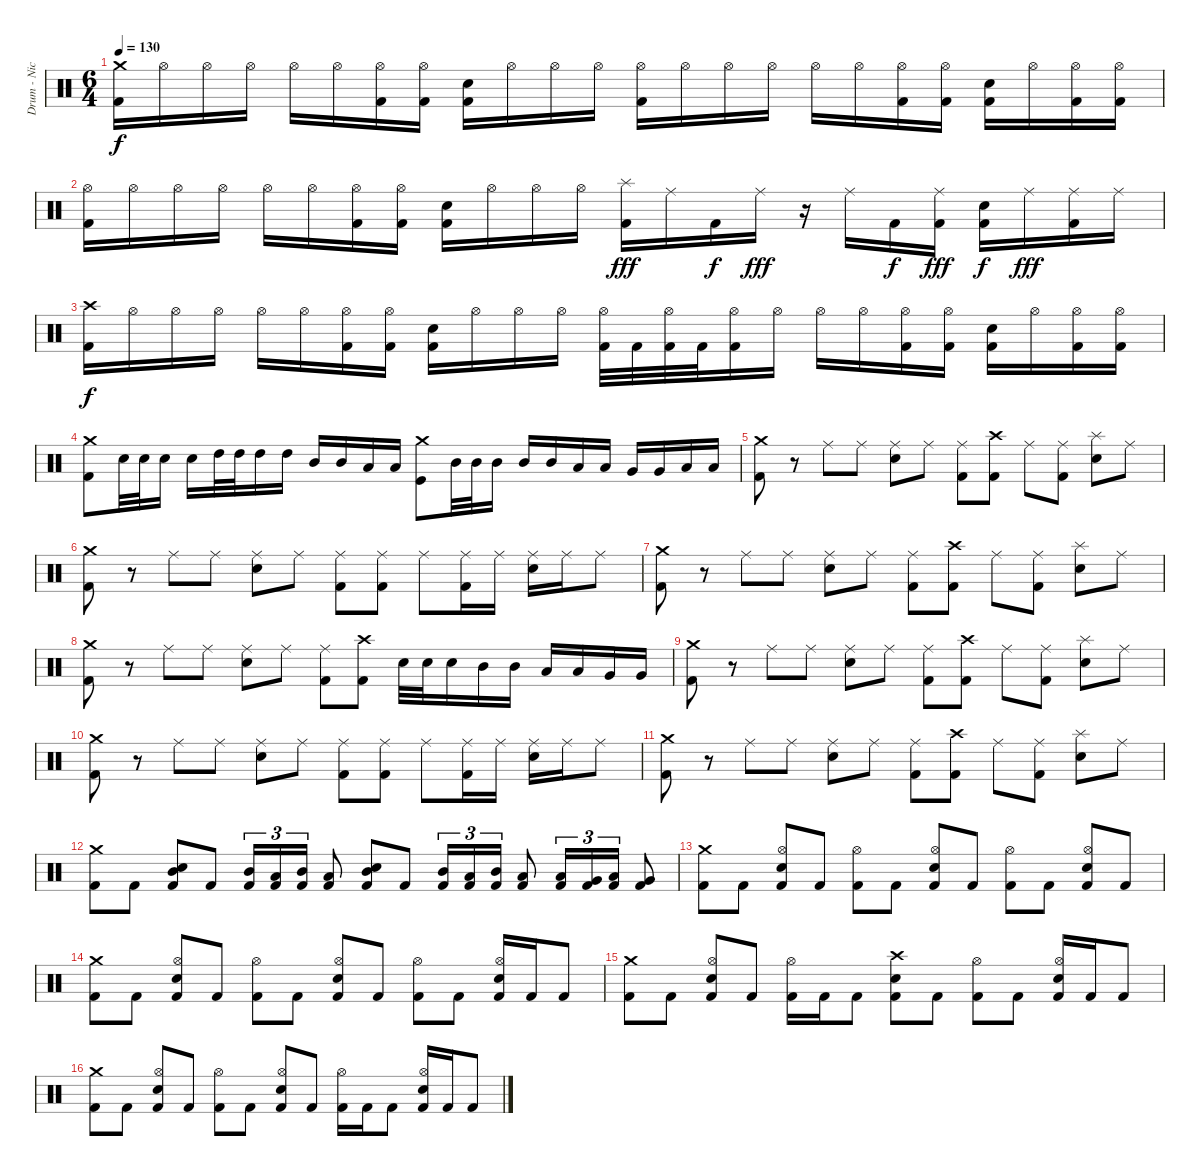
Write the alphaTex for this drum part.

\track ("Drum - Nicholas" "Drum - Nic") {instrument percussion}
\staff {score}
\articulation defaults
\ts (6 4)
\tempo 130
\clef neutral
\ks c
("Crash medium (hit)" "Kick (hit) 2").16{dy f} "Hi-Hat (open)".16 "Hi-Hat (open)".16 "Hi-Hat (open)".16 "Hi-Hat (open)".16 "Hi-Hat (open)".16 ("Hi-Hat (open)" "Kick (hit) 2").16 ("Hi-Hat (open)" "Kick (hit) 2").16 ("Snare (hit) 2" "Kick (hit) 2").16 "Hi-Hat (open)".16 "Hi-Hat (open)".16 "Hi-Hat (open)".16 ("Hi-Hat (open)" "Kick (hit) 2").16 "Hi-Hat (open)".16 "Hi-Hat (open)".16 "Hi-Hat (open)".16 "Hi-Hat (open)".16 "Hi-Hat (open)".16 ("Hi-Hat (open)" "Kick (hit) 2").16 ("Hi-Hat (open)" "Kick (hit) 2").16 ("Snare (hit) 2" "Kick (hit) 2").16 "Hi-Hat (open)".16 ("Hi-Hat (open)" "Kick (hit) 2").16 ("Hi-Hat (open)" "Kick (hit) 2").16 |
("Hi-Hat (open)" "Kick (hit) 2").16 "Hi-Hat (open)".16 "Hi-Hat (open)".16 "Hi-Hat (open)".16 "Hi-Hat (open)".16 "Hi-Hat (open)".16 ("Hi-Hat (open)" "Kick (hit) 2").16 ("Hi-Hat (open)" "Kick (hit) 2").16 ("Snare (hit) 2" "Kick (hit) 2").16 "Hi-Hat (open)".16 "Hi-Hat (open)".16 "Hi-Hat (open)".16 ("Splash (hit)" "Kick (hit) 2").16{dy fff} "Ride (middle)".16 "Kick (hit) 2".16{dy f} "Ride (middle)".16{dy fff} r.16 "Ride (middle)".16 "Kick (hit) 2".16{dy f} ("Ride (middle)" "Kick (hit) 2").16{dy fff} ("Snare (hit) 2" "Kick (hit) 2").16{dy f} "Ride (middle)".16{dy fff} ("Ride (middle)" "Kick (hit) 2").16 "Ride (middle)".16 |
("Crash high (hit)" "Kick (hit) 2").16{dy f} "Hi-Hat (open)".16 "Hi-Hat (open)".16 "Hi-Hat (open)".16 "Hi-Hat (open)".16 "Hi-Hat (open)".16 ("Hi-Hat (open)" "Kick (hit) 2").16 ("Hi-Hat (open)" "Kick (hit) 2").16 ("Snare (hit) 2" "Kick (hit) 2").16 "Hi-Hat (open)".16 "Hi-Hat (open)".16 "Hi-Hat (open)".16 ("Hi-Hat (open)" "Kick (hit) 2").32 "Kick (hit) 2".32 ("Hi-Hat (open)" "Kick (hit) 2").32 "Kick (hit) 2".32 ("Hi-Hat (open)" "Kick (hit) 2").16 "Hi-Hat (open)".16 "Hi-Hat (open)".16 "Hi-Hat (open)".16 ("Hi-Hat (open)" "Kick (hit) 2").16 ("Hi-Hat (open)" "Kick (hit) 2").16 ("Snare (hit) 2" "Kick (hit) 2").16 "Hi-Hat (open)".16 ("Hi-Hat (open)" "Kick (hit) 2").16 ("Hi-Hat (open)" "Kick (hit) 2").16 |
("Crash medium (hit)" "Kick (hit) 2").8 "Snare (hit) 2".32 "Snare (hit) 2".32 "Snare (hit) 2".16 "Snare (hit) 2".16 "High Tom (hit)".32 "High Tom (hit)".32 "High Tom (hit)".16 "High Tom (hit)".16 "Mid Tom (hit)".16 "Mid Tom (hit)".16 "Low Tom (hit)".16 "Low Tom (hit)".16 ("Crash medium (hit)" "Kick (hit)").8 "Mid Tom (hit)".32 "Mid Tom (hit)".32 "Mid Tom (hit)".16 "Mid Tom (hit)".16 "Mid Tom (hit)".16 "Low Tom (hit)".16 "Low Tom (hit)".16 "Very Low Tom (hit)".16 "Very Low Tom (hit)".16 "Low Floor Tom (hit)".16 "Low Floor Tom (hit)".16 |
("Crash medium (hit)" "Kick (hit) 2").8 r.8 "Ride (middle)".8 "Ride (middle)".8 ("Ride (middle)" "Snare (hit) 2").8 "Ride (middle)".8 ("Ride (middle)" "Kick (hit) 2").8 ("Crash high (hit)" "Kick (hit) 2").8 "Ride (middle)".8 ("Ride (middle)" "Kick (hit) 2").8 ("Splash (hit)" "Snare (hit) 2").8 "Ride (middle)".8 |
("Crash medium (hit)" "Kick (hit) 2").8 r.8 "Ride (middle)".8 "Ride (middle)".8 ("Ride (middle)" "Snare (hit) 2").8 "Ride (middle)".8 ("Ride (middle)" "Kick (hit) 2").8 ("Ride (middle)" "Kick (hit) 2").8 "Ride (middle)".8 ("Ride (middle)" "Kick (hit) 2").16 "Ride (middle)".16 ("Ride (middle)" "Snare (hit) 2").16 "Ride (middle)".16 "Ride (middle)".8 |
("Crash medium (hit)" "Kick (hit) 2").8 r.8 "Ride (middle)".8 "Ride (middle)".8 ("Ride (middle)" "Snare (hit) 2").8 "Ride (middle)".8 ("Ride (middle)" "Kick (hit) 2").8 ("Crash high (hit)" "Kick (hit) 2").8 "Ride (middle)".8 ("Ride (middle)" "Kick (hit) 2").8 ("Splash (hit)" "Snare (hit) 2").8 "Ride (middle)".8 |
("Crash medium (hit)" "Kick (hit) 2").8 r.8 "Ride (middle)".8 "Ride (middle)".8 ("Ride (middle)" "Snare (hit) 2").8 "Ride (middle)".8 ("Ride (middle)" "Kick (hit) 2").8 ("Crash high (hit)" "Kick (hit) 2").8 "Snare (hit) 2".32 "Snare (hit) 2".32 "Snare (hit) 2".16 "Mid Tom (hit)".16 "Mid Tom (hit)".16 "Low Tom (hit)".16 "Low Tom (hit)".16 "Very Low Tom (hit)".16 "Very Low Tom (hit)".16 |
("Crash medium (hit)" "Kick (hit) 2").8 r.8 "Ride (middle)".8 "Ride (middle)".8 ("Ride (middle)" "Snare (hit) 2").8 "Ride (middle)".8 ("Ride (middle)" "Kick (hit) 2").8 ("Crash high (hit)" "Kick (hit) 2").8 "Ride (middle)".8 ("Ride (middle)" "Kick (hit) 2").8 ("Splash (hit)" "Snare (hit) 2").8 "Ride (middle)".8 |
("Crash medium (hit)" "Kick (hit) 2").8 r.8 "Ride (middle)".8 "Ride (middle)".8 ("Ride (middle)" "Snare (hit) 2").8 "Ride (middle)".8 ("Ride (middle)" "Kick (hit) 2").8 ("Ride (middle)" "Kick (hit) 2").8 "Ride (middle)".8 ("Ride (middle)" "Kick (hit) 2").16 "Ride (middle)".16 ("Ride (middle)" "Snare (hit) 2").16 "Ride (middle)".16 "Ride (middle)".8 |
("Crash medium (hit)" "Kick (hit) 2").8 r.8 "Ride (middle)".8 "Ride (middle)".8 ("Ride (middle)" "Snare (hit) 2").8 "Ride (middle)".8 ("Ride (middle)" "Kick (hit) 2").8 ("Crash high (hit)" "Kick (hit) 2").8 "Ride (middle)".8 ("Ride (middle)" "Kick (hit) 2").8 ("Splash (hit)" "Snare (hit) 2").8 "Ride (middle)".8 |
("Crash medium (hit)" "Kick (hit) 2").8 "Kick (hit) 2".8 ("Mid Tom (hit)" "Snare (hit) 2" "Kick (hit) 2").8 "Kick (hit) 2".8 ("Mid Tom (hit)" "Kick (hit) 2").16{tu (3 2)} ("Low Tom (hit)" "Kick (hit) 2").16{tu (3 2)} ("Mid Tom (hit)" "Kick (hit) 2").16{tu (3 2)} ("Low Tom (hit)" "Kick (hit) 2").8 ("Mid Tom (hit)" "Snare (hit) 2" "Kick (hit) 2").8 "Kick (hit) 2".8 ("Mid Tom (hit)" "Kick (hit) 2").16{tu (3 2)} ("Low Tom (hit)" "Kick (hit) 2").16{tu (3 2)} ("Mid Tom (hit)" "Kick (hit) 2").16{tu (3 2)} ("Low Tom (hit)" "Kick (hit) 2").8 ("Low Tom (hit)" "Kick (hit) 2").16{tu (3 2)} ("Very Low Tom (hit)" "Kick (hit) 2").16{tu (3 2)} ("Low Tom (hit)" "Kick (hit) 2").16{tu (3 2)} ("Very Low Tom (hit)" "Kick (hit) 2").8 |
("Crash medium (hit)" "Kick (hit) 2").8 "Kick (hit) 2".8 ("Hi-Hat (open)" "Snare (hit) 2" "Kick (hit) 2").8 "Kick (hit) 2".8 ("Hi-Hat (open)" "Kick (hit) 2").8 "Kick (hit) 2".8 ("Hi-Hat (open)" "Snare (hit) 2" "Kick (hit) 2").8 "Kick (hit) 2".8 ("Hi-Hat (open)" "Kick (hit) 2").8 "Kick (hit) 2".8 ("Hi-Hat (open)" "Snare (hit) 2" "Kick (hit) 2").8 "Kick (hit) 2".8 |
("Crash medium (hit)" "Kick (hit) 2").8 "Kick (hit) 2".8 ("Hi-Hat (open)" "Snare (hit) 2" "Kick (hit) 2").8 "Kick (hit) 2".8 ("Hi-Hat (open)" "Kick (hit) 2").8 "Kick (hit) 2".8 ("Hi-Hat (open)" "Snare (hit) 2" "Kick (hit) 2").8 "Kick (hit) 2".8 ("Hi-Hat (open)" "Kick (hit) 2").8 "Kick (hit) 2".8 ("Hi-Hat (open)" "Snare (hit) 2" "Kick (hit) 2").16 "Kick (hit) 2".16 "Kick (hit) 2".8 |
("Crash medium (hit)" "Kick (hit) 2").8 "Kick (hit) 2".8 ("Hi-Hat (open)" "Snare (hit) 2" "Kick (hit) 2").8 "Kick (hit) 2".8 ("Hi-Hat (open)" "Kick (hit) 2").16 "Kick (hit) 2".16 "Kick (hit) 2".8 ("Crash high (hit)" "Snare (hit) 2" "Kick (hit) 2").8 "Kick (hit) 2".8 ("Hi-Hat (open)" "Kick (hit) 2").8 "Kick (hit) 2".8 ("Hi-Hat (open)" "Snare (hit) 2" "Kick (hit) 2").16 "Kick (hit) 2".16 "Kick (hit) 2".8 |
("Crash medium (hit)" "Kick (hit) 2").8 "Kick (hit) 2".8 ("Hi-Hat (open)" "Snare (hit) 2" "Kick (hit) 2").8 "Kick (hit) 2".8 ("Hi-Hat (open)" "Kick (hit) 2").8 "Kick (hit) 2".8 ("Hi-Hat (open)" "Snare (hit) 2" "Kick (hit) 2").8 "Kick (hit) 2".8 ("Hi-Hat (open)" "Kick (hit) 2").16 "Kick (hit) 2".16 "Kick (hit) 2".8 ("Hi-Hat (open)" "Snare (hit) 2" "Kick (hit) 2").16 "Kick (hit) 2".16 "Kick (hit) 2".8
